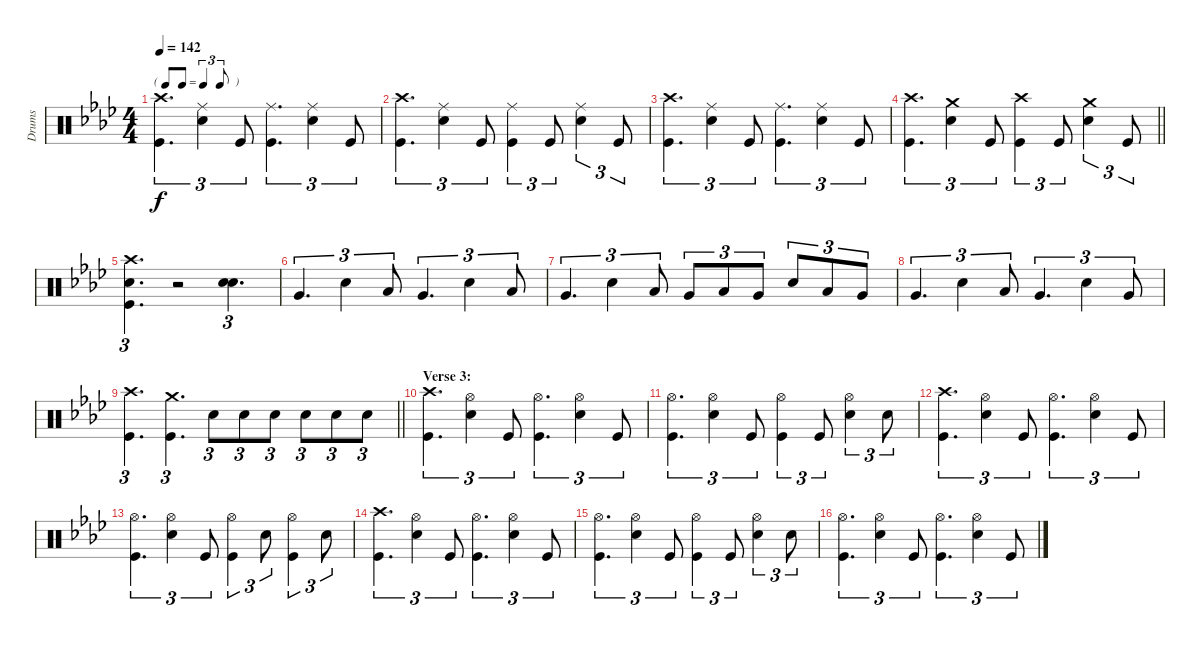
\track ("Drums" "Drums") {instrument percussion}
\staff {score}
\articulation defaults
\ts (4 4)
\tf triplet8th
\tempo 142
\clef neutral
\ks ab
("Crash high (hit)" "Kick (hit)").4{d tu (3 2) dy f} ("Snare (hit) 2" "Ride (middle)").4{tu (3 2)} "Kick (hit)".8{tu (3 2)} ("Kick (hit)" "Ride (middle)").4{d tu (3 2)} ("Snare (hit) 2" "Ride (middle)").4{tu (3 2)} "Kick (hit)".8{tu (3 2)} |
("Kick (hit)" "Crash high (hit)").4{d tu (3 2)} ("Snare (hit) 2" "Ride (middle)").4{tu (3 2)} "Kick (hit)".8{tu (3 2)} ("Kick (hit)" "Ride (middle)").4{tu (3 2)} "Kick (hit)".8{tu (3 2)} ("Snare (hit) 2" "Ride (middle)").4{tu (3 2)} "Kick (hit)".8{tu (3 2)} |
("Crash high (hit)" "Kick (hit)").4{d tu (3 2)} ("Snare (hit) 2" "Ride (middle)").4{tu (3 2)} "Kick (hit)".8{tu (3 2)} ("Kick (hit)" "Ride (middle)").4{d tu (3 2)} ("Snare (hit) 2" "Ride (middle)").4{tu (3 2)} "Kick (hit)".8{tu (3 2)} |
\barLineRight lightlight
("Kick (hit)" "Crash high (hit)").4{d tu (3 2)} ("Snare (hit) 2" "Crash medium (hit)").4{tu (3 2)} "Kick (hit)".8{tu (3 2)} ("Kick (hit)" "Crash high (hit)").4{tu (3 2)} "Kick (hit)".8{tu (3 2)} ("Snare (hit) 2" "Crash medium (hit)").4{tu (3 2)} "Kick (hit)".8{tu (3 2)} |
("Kick (hit)" "Snare (hit) 2" "Crash high (hit)").4{d tu (3 2)} r.2 ("Snare (hit) 2" "Snare (hit) 2").4{d tu (3 2)} |
"Very Low Tom (hit)".4{d tu (3 2)} "Snare (hit) 2".4{tu (3 2)} "Low Floor Tom (hit)".8{tu (3 2)} "Very Low Tom (hit)".4{d tu (3 2)} "Snare (hit) 2".4{tu (3 2)} "Low Floor Tom (hit)".8{tu (3 2)} |
"Very Low Tom (hit)".4{d tu (3 2)} "Snare (hit) 2".4{tu (3 2)} "Low Floor Tom (hit)".8{tu (3 2)} "Very Low Tom (hit)".8{tu (3 2)} "Low Floor Tom (hit)".8{tu (3 2)} "Very Low Tom (hit)".8{tu (3 2)} "Snare (hit) 2".8{tu (3 2)} "Low Floor Tom (hit)".8{tu (3 2)} "Very Low Tom (hit)".8{tu (3 2)} |
"Very Low Tom (hit)".4{d tu (3 2)} "Snare (hit) 2".4{tu (3 2)} "Low Floor Tom (hit)".8{tu (3 2)} "Very Low Tom (hit)".4{d tu (3 2)} "Snare (hit) 2".4{tu (3 2)} "Very Low Tom (hit)".8{tu (3 2)} |
\barLineRight lightlight
("Kick (hit)" "Crash high (hit)").4{d tu (3 2)} ("Kick (hit)" "Crash medium (hit)").4{d tu (3 2)} "Snare (hit) 2".8{tu (3 2)} "Snare (hit) 2".8{tu (3 2)} "Snare (hit) 2".8{tu (3 2)} "Snare (hit) 2".8{tu (3 2)} "Snare (hit) 2".8{tu (3 2)} "Snare (hit) 2".8{tu (3 2)} |
\section ("" "Verse 3:")
("Crash high (hit)" "Kick (hit)").4{d tu (3 2)} ("Hi-Hat (open)" "Snare (hit) 2").4{tu (3 2)} "Kick (hit)".8{tu (3 2)} ("Kick (hit)" "Hi-Hat (open)").4{d tu (3 2)} ("Snare (hit) 2" "Hi-Hat (open)").4{tu (3 2)} "Kick (hit)".8{tu (3 2)} |
("Kick (hit)" "Hi-Hat (open)").4{d tu (3 2)} ("Hi-Hat (open)" "Snare (hit) 2").4{tu (3 2)} "Kick (hit)".8{tu (3 2)} ("Kick (hit)" "Hi-Hat (open)").4{tu (3 2)} "Kick (hit)".8{tu (3 2)} ("Snare (hit) 2" "Hi-Hat (open)").4{tu (3 2)} "Snare (hit) 2".8{tu (3 2)} |
("Crash high (hit)" "Kick (hit)").4{d tu (3 2)} ("Hi-Hat (open)" "Snare (hit) 2").4{tu (3 2)} "Kick (hit)".8{tu (3 2)} ("Kick (hit)" "Hi-Hat (open)").4{d tu (3 2)} ("Snare (hit) 2" "Hi-Hat (open)").4{tu (3 2)} "Kick (hit)".8{tu (3 2)} |
("Kick (hit)" "Hi-Hat (open)").4{d tu (3 2)} ("Snare (hit) 2" "Hi-Hat (open)").4{tu (3 2)} "Kick (hit)".8{tu (3 2)} ("Kick (hit)" "Hi-Hat (open)").4{tu (3 2)} "Snare (hit) 2".8{tu (3 2)} ("Kick (hit)" "Hi-Hat (open)").4{tu (3 2)} "Snare (hit) 2".8{tu (3 2)} |
("Crash high (hit)" "Kick (hit)").4{d tu (3 2)} ("Hi-Hat (open)" "Snare (hit) 2").4{tu (3 2)} "Kick (hit)".8{tu (3 2)} ("Kick (hit)" "Hi-Hat (open)").4{d tu (3 2)} ("Snare (hit) 2" "Hi-Hat (open)").4{tu (3 2)} "Kick (hit)".8{tu (3 2)} |
("Kick (hit)" "Hi-Hat (open)").4{d tu (3 2)} ("Hi-Hat (open)" "Snare (hit) 2").4{tu (3 2)} "Kick (hit)".8{tu (3 2)} ("Kick (hit)" "Hi-Hat (open)").4{tu (3 2)} "Kick (hit)".8{tu (3 2)} ("Snare (hit) 2" "Hi-Hat (open)").4{tu (3 2)} "Snare (hit) 2".8{tu (3 2)} |
("Kick (hit)" "Hi-Hat (open)").4{d tu (3 2)} ("Snare (hit) 2" "Hi-Hat (open)").4{tu (3 2)} "Kick (hit)".8{tu (3 2)} ("Kick (hit)" "Hi-Hat (open)").4{d tu (3 2)} ("Snare (hit) 2" "Hi-Hat (open)").4{tu (3 2)} "Kick (hit)".8{tu (3 2)}
